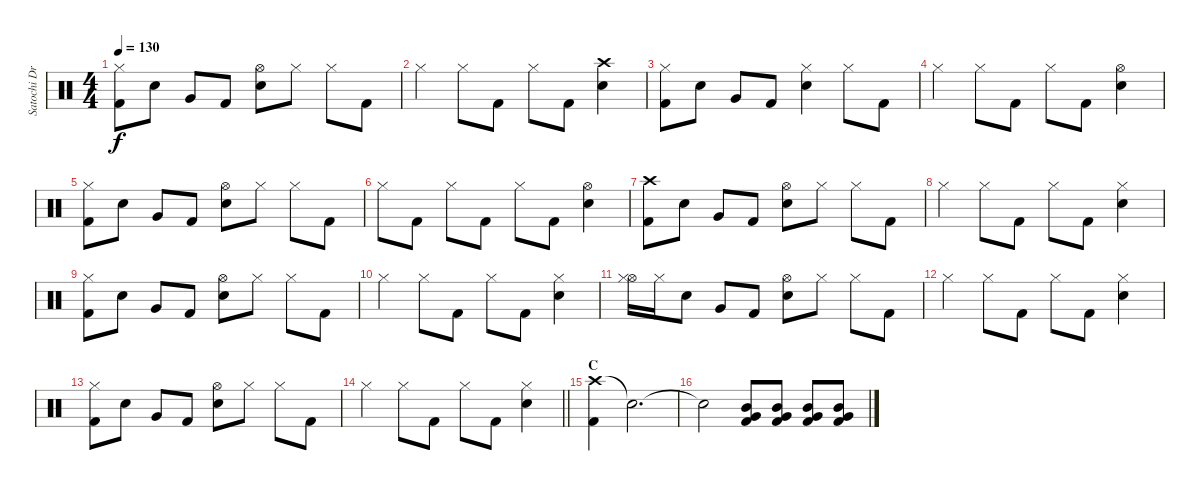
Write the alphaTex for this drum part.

\track ("Satochi Drums" "Satochi Dr") {instrument percussion}
\staff {score}
\articulation defaults
\ts (4 4)
\tempo 130
\clef neutral
\ks c
("Hi-Hat (closed)" "Kick (hit) 2").8{dy f} "Snare (hit) 2".8 "Very Low Tom (hit)".8 "Kick (hit) 2".8 ("Hi-Hat (open)" "Snare (hit) 2").8 "Hi-Hat (closed)".8 "Hi-Hat (closed)".8 "Kick (hit) 2".8 |
"Hi-Hat (closed)".4 "Hi-Hat (closed)".8 "Kick (hit) 2".8 "Hi-Hat (closed)".8 "Kick (hit) 2".8 ("Crash high (hit)" "Snare (hit) 2").4 |
("Hi-Hat (closed)" "Kick (hit) 2").8 "Snare (hit) 2".8 "Very Low Tom (hit)".8 "Kick (hit) 2".8 ("Hi-Hat (closed)" "Snare (hit) 2").4 "Hi-Hat (closed)".8 "Kick (hit) 2".8 |
"Hi-Hat (closed)".4 "Hi-Hat (closed)".8 "Kick (hit) 2".8 "Hi-Hat (closed)".8 "Kick (hit) 2".8 ("Hi-Hat (open)" "Snare (hit) 2").4 |
("Hi-Hat (closed)" "Kick (hit) 2").8 "Snare (hit) 2".8 "Very Low Tom (hit)".8 "Kick (hit) 2".8 ("Hi-Hat (open)" "Snare (hit) 2").8 "Hi-Hat (closed)".8 "Hi-Hat (closed)".8 "Kick (hit) 2".8 |
"Hi-Hat (closed)".8 "Kick (hit) 2".8 "Hi-Hat (closed)".8 "Kick (hit) 2".8 "Hi-Hat (closed)".8 "Kick (hit) 2".8 ("Hi-Hat (open)" "Snare (hit) 2").4 |
("Crash high (hit)" "Kick (hit) 2").8 "Snare (hit) 2".8 "Very Low Tom (hit)".8 "Kick (hit) 2".8 ("Hi-Hat (open)" "Snare (hit) 2").8 "Hi-Hat (closed)".8 "Hi-Hat (closed)".8 "Kick (hit) 2".8 |
"Hi-Hat (closed)".4 "Hi-Hat (closed)".8 "Kick (hit) 2".8 "Hi-Hat (closed)".8 "Kick (hit) 2".8 ("Hi-Hat (closed)" "Snare (hit) 2").4 |
("Hi-Hat (closed)" "Kick (hit) 2").8 "Snare (hit) 2".8 "Very Low Tom (hit)".8 "Kick (hit) 2".8 ("Hi-Hat (open)" "Snare (hit) 2").8 "Hi-Hat (closed)".8 "Hi-Hat (closed)".8 "Kick (hit) 2".8 |
"Hi-Hat (closed)".4 "Hi-Hat (closed)".8 "Kick (hit) 2".8 "Hi-Hat (closed)".8 "Kick (hit) 2".8 ("Hi-Hat (closed)" "Snare (hit) 2").4 |
("Hi-Hat (open)" "Hi-Hat (closed)").16 "Hi-Hat (closed)".16 "Snare (hit) 2".8 "Very Low Tom (hit)".8 "Kick (hit) 2".8 ("Hi-Hat (open)" "Snare (hit) 2").8 "Hi-Hat (closed)".8 "Hi-Hat (closed)".8 "Kick (hit) 2".8 |
"Hi-Hat (closed)".4 "Hi-Hat (closed)".8 "Kick (hit) 2".8 "Hi-Hat (closed)".8 "Kick (hit) 2".8 ("Hi-Hat (closed)" "Snare (hit) 2").4 |
("Hi-Hat (closed)" "Kick (hit) 2").8 "Snare (hit) 2".8 "Very Low Tom (hit)".8 "Kick (hit) 2".8 ("Hi-Hat (open)" "Snare (hit) 2").8 "Hi-Hat (closed)".8 "Hi-Hat (closed)".8 "Kick (hit) 2".8 |
\barLineRight lightlight "Hi-Hat (closed)".4 "Hi-Hat (closed)".8 "Kick (hit) 2".8 "Hi-Hat (closed)".8 "Kick (hit) 2".8
("Hi-Hat (closed)" "Snare (hit) 2").4 |
\section ("" "C")
("Crash high (hit)" "Kick (hit) 2").4 "Snare (hit)"{t}.2{d} |
"Snare (hit)"{t}.2{volume 9} ("Mid Tom (hit)" "Very Low Tom (hit)" "Kick (hit) 2").8{volume 13} ("Mid Tom (hit)" "Very Low Tom (hit)" "Kick (hit) 2").8 ("Mid Tom (hit)" "Very Low Tom (hit)" "Kick (hit) 2").8 ("Mid Tom (hit)" "Very Low Tom (hit)" "Kick (hit) 2").8
